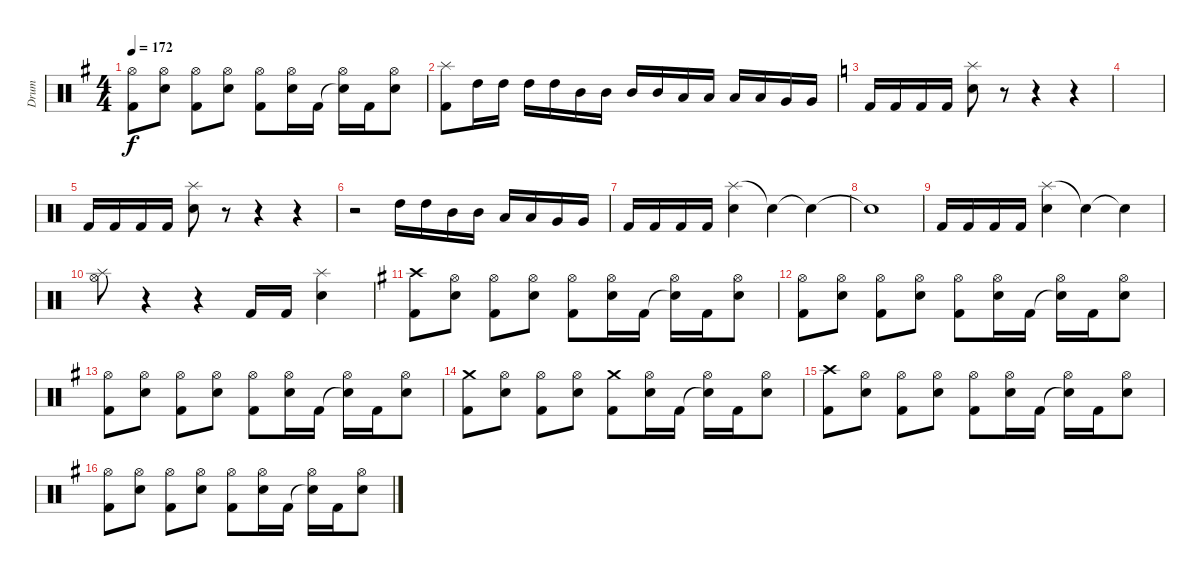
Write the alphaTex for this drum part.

\track ("Drum" "Drum") {instrument percussion}
\staff {score}
\articulation defaults
\ts (4 4)
\tempo 172
\clef neutral
\ks eminor
("Kick (hit) 2" "Hi-Hat (open)").8{dy f} ("Electric Snare (hit)" "Hi-Hat (open)").8 ("Kick (hit) 2" "Hi-Hat (open)").8 ("Electric Snare (hit)" "Hi-Hat (open)").8 ("Kick (hit) 2" "Hi-Hat (open)").8 ("Electric Snare (hit)" "Hi-Hat (open)").16 "Kick (hit) 2".16 ("Snare (hit)"{t} "Hi-Hat (open)").16 "Kick (hit) 2".16 ("Electric Snare (hit)" "Hi-Hat (open)").8 |
("Kick (hit) 2" "Splash (hit)").8 "High Tom (hit)".16 "High Tom (hit)".16 "High Tom (hit)".16 "High Tom (hit)".16 "Mid Tom (hit)".16 "Mid Tom (hit)".16 "Mid Tom (hit)".16 "Mid Tom (hit)".16 "Low Tom (hit)".16 "Low Tom (hit)".16 "Low Tom (hit)".16 "Low Tom (hit)".16 "Very Low Tom (hit)".16 "Very Low Tom (hit)".16 |
\ks c "Kick (hit) 2".16 "Kick (hit) 2".16 "Kick (hit) 2".16 "Kick (hit) 2".16
("Splash (hit)" "Electric Snare (hit)").8 r.8 r.4 r.4 |
|
"Kick (hit) 2".16 "Kick (hit) 2".16 "Kick (hit) 2".16 "Kick (hit) 2".16 ("Splash (hit)" "Electric Snare (hit)").8 r.8 r.4 r.4 |
r.2 "High Tom (hit)".16 "High Tom (hit)".16 "Mid Tom (hit)".16 "Mid Tom (hit)".16 "Low Tom (hit)".16 "Low Tom (hit)".16 "Very Low Tom (hit)".16 "Very Low Tom (hit)".16 |
"Kick (hit) 2".16 "Kick (hit) 2".16 "Kick (hit) 2".16 "Kick (hit) 2".16 ("Splash (hit)" "Electric Snare (hit)").4 "Snare (hit)"{t}.4 "Snare (hit)"{t}.4 |
"Snare (hit)"{t}.1 |
"Kick (hit) 2".16 "Kick (hit) 2".16 "Kick (hit) 2".16 "Kick (hit) 2".16 ("Splash (hit)" "Electric Snare (hit)").4 "Snare (hit)"{t}.4 "Snare (hit)"{t}.4 |
("Splash (hit)" "Hi-Hat (open)").8 r.4 r.4 "Kick (hit) 2".16 "Kick (hit) 2".16 ("Electric Snare (hit)" "Splash (hit)").4 |
\ks eminor
("Kick (hit) 2" "Crash high (hit)").8 ("Electric Snare (hit)" "Hi-Hat (open)").8 ("Kick (hit) 2" "Hi-Hat (open)").8 ("Electric Snare (hit)" "Hi-Hat (open)").8 ("Kick (hit) 2" "Hi-Hat (open)").8 ("Electric Snare (hit)" "Hi-Hat (open)").16 "Kick (hit) 2".16 ("Snare (hit)"{t} "Hi-Hat (open)").16 "Kick (hit) 2".16 ("Electric Snare (hit)" "Hi-Hat (open)").8 |
("Kick (hit) 2" "Hi-Hat (open)").8 ("Electric Snare (hit)" "Hi-Hat (open)").8 ("Kick (hit) 2" "Hi-Hat (open)").8 ("Electric Snare (hit)" "Hi-Hat (open)").8 ("Kick (hit) 2" "Hi-Hat (open)").8 ("Electric Snare (hit)" "Hi-Hat (open)").16 "Kick (hit) 2".16 ("Snare (hit)"{t} "Hi-Hat (open)").16 "Kick (hit) 2".16 ("Electric Snare (hit)" "Hi-Hat (open)").8 |
("Kick (hit) 2" "Hi-Hat (open)").8 ("Electric Snare (hit)" "Hi-Hat (open)").8 ("Kick (hit) 2" "Hi-Hat (open)").8 ("Electric Snare (hit)" "Hi-Hat (open)").8 ("Kick (hit) 2" "Hi-Hat (open)").8 ("Electric Snare (hit)" "Hi-Hat (open)").16 "Kick (hit) 2".16 ("Snare (hit)"{t} "Hi-Hat (open)").16 "Kick (hit) 2".16 ("Electric Snare (hit)" "Hi-Hat (open)").8 |
("Kick (hit) 2" "Crash medium (hit)").8 ("Electric Snare (hit)" "Hi-Hat (open)").8 ("Kick (hit) 2" "Hi-Hat (open)").8 ("Electric Snare (hit)" "Hi-Hat (open)").8 ("Kick (hit) 2" "Crash medium (hit)").8 ("Electric Snare (hit)" "Hi-Hat (open)").16 "Kick (hit) 2".16 ("Snare (hit)"{t} "Hi-Hat (open)").16 "Kick (hit) 2".16 ("Electric Snare (hit)" "Hi-Hat (open)").8 |
("Kick (hit) 2" "Crash high (hit)").8 ("Electric Snare (hit)" "Hi-Hat (open)").8 ("Kick (hit) 2" "Hi-Hat (open)").8 ("Electric Snare (hit)" "Hi-Hat (open)").8 ("Kick (hit) 2" "Hi-Hat (open)").8 ("Electric Snare (hit)" "Hi-Hat (open)").16 "Kick (hit) 2".16 ("Snare (hit)"{t} "Hi-Hat (open)").16 "Kick (hit) 2".16 ("Electric Snare (hit)" "Hi-Hat (open)").8 |
("Kick (hit) 2" "Hi-Hat (open)").8 ("Electric Snare (hit)" "Hi-Hat (open)").8 ("Kick (hit) 2" "Hi-Hat (open)").8 ("Electric Snare (hit)" "Hi-Hat (open)").8 ("Kick (hit) 2" "Hi-Hat (open)").8 ("Electric Snare (hit)" "Hi-Hat (open)").16 "Kick (hit) 2".16 ("Snare (hit)"{t} "Hi-Hat (open)").16 "Kick (hit) 2".16 ("Electric Snare (hit)" "Hi-Hat (open)").8
